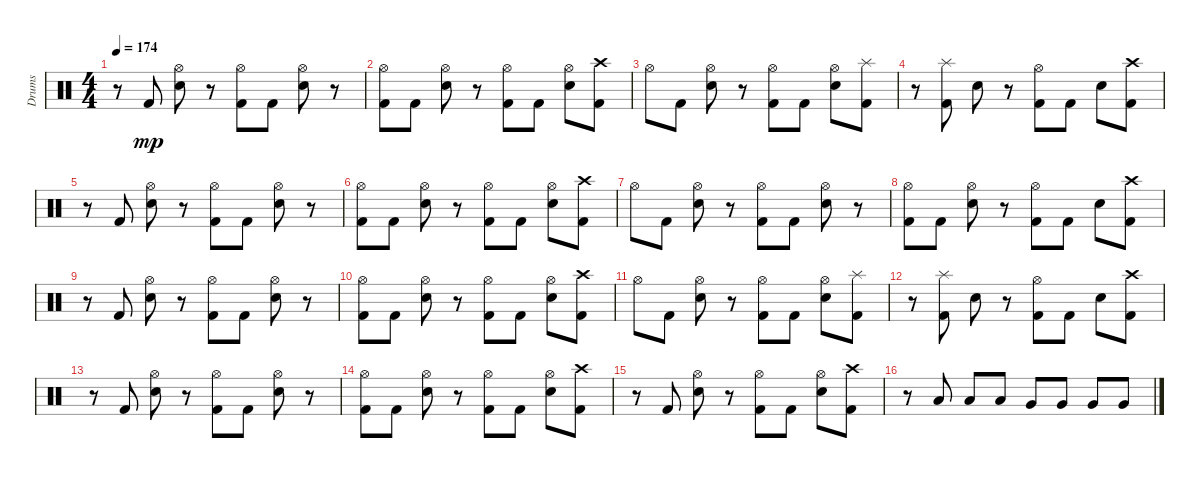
\track ("Drums" "Drums") {instrument percussion}
\staff {score}
\articulation defaults
\ts (4 4)
\tempo 174
\clef neutral
\ks c
r.8{dy mp} "Kick (hit) 2".8 ("Hi-Hat (open)" "Snare (hit) 2").8 r.8 ("Hi-Hat (open)" "Kick (hit) 2").8 "Kick (hit) 2".8 ("Hi-Hat (open)" "Snare (hit) 2").8 r.8 |
("Hi-Hat (open)" "Kick (hit) 2").8 "Kick (hit) 2".8 ("Snare (hit) 2" "Hi-Hat (open)").8 r.8 ("Kick (hit) 2" "Hi-Hat (open)").8 "Kick (hit) 2".8 ("Hi-Hat (open)" "Snare (hit) 2").8 ("Crash high (hit)" "Kick (hit) 2").8 |
"Hi-Hat (open)".8 "Kick (hit) 2".8 ("Snare (hit) 2" "Hi-Hat (open)").8 r.8 ("Kick (hit) 2" "Hi-Hat (open)").8 "Kick (hit) 2".8 ("Hi-Hat (open)" "Snare (hit) 2").8 ("Kick (hit) 2" "Splash (hit)").8 |
r.8 ("Splash (hit)" "Kick (hit) 2").8 "Snare (hit) 2".8 r.8 ("Kick (hit) 2" "Hi-Hat (open)").8 "Kick (hit) 2".8 "Snare (hit) 2".8 ("Crash high (hit)" "Kick (hit) 2").8 |
r.8 "Kick (hit) 2".8 ("Snare (hit) 2" "Hi-Hat (open)").8 r.8 ("Kick (hit) 2" "Hi-Hat (open)").8 "Kick (hit) 2".8 ("Snare (hit) 2" "Hi-Hat (open)").8 r.8 |
("Hi-Hat (open)" "Kick (hit) 2").8 "Kick (hit) 2".8 ("Hi-Hat (open)" "Snare (hit) 2").8 r.8 ("Hi-Hat (open)" "Kick (hit) 2").8 "Kick (hit) 2".8 ("Snare (hit) 2" "Hi-Hat (open)").8 ("Crash high (hit)" "Kick (hit) 2").8 |
"Hi-Hat (open)".8 "Kick (hit) 2".8 ("Hi-Hat (open)" "Snare (hit) 2").8 r.8 ("Kick (hit) 2" "Hi-Hat (open)").8 "Kick (hit) 2".8 ("Hi-Hat (open)" "Snare (hit) 2").8 r.8 |
("Hi-Hat (open)" "Kick (hit) 2").8 "Kick (hit) 2".8 ("Snare (hit) 2" "Hi-Hat (open)").8 r.8 ("Kick (hit) 2" "Hi-Hat (open)").8 "Kick (hit) 2".8 "Snare (hit) 2".8 ("Kick (hit) 2" "Crash high (hit)").8 |
r.8 "Kick (hit) 2".8 ("Hi-Hat (open)" "Snare (hit) 2").8 r.8 ("Hi-Hat (open)" "Kick (hit) 2").8 "Kick (hit) 2".8 ("Snare (hit) 2" "Hi-Hat (open)").8 r.8 |
("Hi-Hat (open)" "Kick (hit) 2").8 "Kick (hit) 2".8 ("Hi-Hat (open)" "Snare (hit) 2").8 r.8 ("Hi-Hat (open)" "Kick (hit) 2").8 "Kick (hit) 2".8 ("Hi-Hat (open)" "Snare (hit) 2").8 ("Crash high (hit)" "Kick (hit) 2").8 |
"Hi-Hat (open)".8 "Kick (hit) 2".8 ("Hi-Hat (open)" "Snare (hit) 2").8 r.8 ("Kick (hit) 2" "Hi-Hat (open)").8 "Kick (hit) 2".8 ("Snare (hit) 2" "Hi-Hat (open)").8 ("Kick (hit) 2" "Splash (hit)").8 |
r.8 ("Splash (hit)" "Kick (hit) 2").8 "Snare (hit) 2".8 r.8 ("Kick (hit) 2" "Hi-Hat (open)").8 "Kick (hit) 2".8 "Snare (hit) 2".8 ("Kick (hit) 2" "Crash high (hit)").8 |
r.8 "Kick (hit) 2".8 ("Hi-Hat (open)" "Snare (hit) 2").8 r.8 ("Hi-Hat (open)" "Kick (hit) 2").8 "Kick (hit) 2".8 ("Hi-Hat (open)" "Snare (hit) 2").8 r.8 |
("Hi-Hat (open)" "Kick (hit) 2").8 "Kick (hit) 2".8 ("Snare (hit) 2" "Hi-Hat (open)").8 r.8 ("Kick (hit) 2" "Hi-Hat (open)").8 "Kick (hit) 2".8 ("Snare (hit) 2" "Hi-Hat (open)").8 ("Crash high (hit)" "Kick (hit) 2").8 |
r.8 "Kick (hit) 2".8 ("Snare (hit) 2" "Hi-Hat (open)").8 r.8 ("Kick (hit) 2" "Hi-Hat (open)").8 "Kick (hit) 2".8 ("Hi-Hat (open)" "Snare (hit) 2").8 ("Kick (hit) 2" "Crash high (hit)").8 |
r.8 "Low Tom (hit)".8 "Low Tom (hit)".8 "Low Tom (hit)".8 "Very Low Tom (hit)".8 "Very Low Tom (hit)".8 "Very Low Tom (hit)".8 "Very Low Tom (hit)".8
